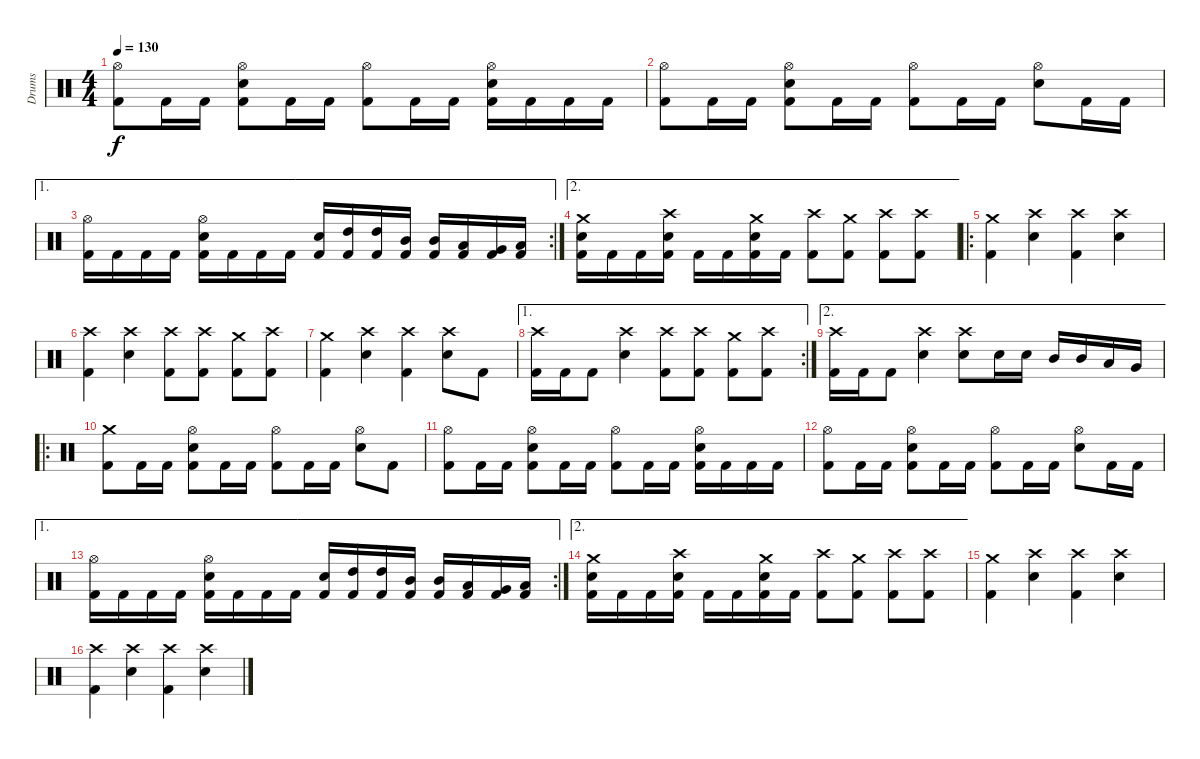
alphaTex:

\track ("Drums" "Drums") {instrument percussion}
\staff {score}
\articulation defaults
\ts (4 4)
\tempo 130
\clef neutral
\ks c
("Hi-Hat (open)" "Kick (hit) 2").8{dy f} "Kick (hit) 2".16 "Kick (hit) 2".16 ("Hi-Hat (open)" "Electric Snare (hit)" "Kick (hit) 2").8 "Kick (hit) 2".16 "Kick (hit) 2".16 ("Hi-Hat (open)" "Kick (hit) 2").8 "Kick (hit) 2".16 "Kick (hit) 2".16 ("Hi-Hat (open)" "Electric Snare (hit)" "Kick (hit) 2").16 "Kick (hit) 2".16 "Kick (hit) 2".16 "Kick (hit) 2".16 |
("Hi-Hat (open)" "Kick (hit) 2").8 "Kick (hit) 2".16 "Kick (hit) 2".16 ("Hi-Hat (open)" "Electric Snare (hit)" "Kick (hit) 2").8 "Kick (hit) 2".16 "Kick (hit) 2".16 ("Hi-Hat (open)" "Kick (hit) 2").8 "Kick (hit) 2".16 "Kick (hit) 2".16 ("Hi-Hat (open)" "Electric Snare (hit)").8 "Kick (hit) 2".16 "Kick (hit) 2".16 |
\ae 1
\rc 2
("Hi-Hat (open)" "Kick (hit) 2").16 "Kick (hit) 2".16 "Kick (hit) 2".16 "Kick (hit) 2".16 ("Hi-Hat (open)" "Electric Snare (hit)" "Kick (hit) 2").16 "Kick (hit) 2".16 "Kick (hit) 2".16 "Kick (hit) 2".16 ("Electric Snare (hit)" "Kick (hit) 2").16 ("High Tom (hit)" "Kick (hit) 2").16 ("High Tom (hit)" "Kick (hit) 2").16 ("Mid Tom (hit)" "Kick (hit) 2").16 ("Mid Tom (hit)" "Kick (hit) 2").16 ("Low Tom (hit)" "Kick (hit) 2").16 ("Very Low Tom (hit)" "Kick (hit) 2").16 ("Low Floor Tom (hit)" "Kick (hit) 2").16 |
\ae 2
("Crash medium (hit)" "Electric Snare (hit)" "Kick (hit) 2").16 "Kick (hit) 2".16 "Kick (hit) 2".16 ("Crash high (hit)" "Electric Snare (hit)" "Kick (hit) 2").16 "Kick (hit) 2".16 "Kick (hit) 2".16 ("Crash medium (hit)" "Electric Snare (hit)" "Kick (hit) 2").16 "Kick (hit) 2".16 ("Crash high (hit)" "Kick (hit) 2").8 ("Crash medium (hit)" "Kick (hit) 2").8 ("Crash high (hit)" "Kick (hit) 2").8 ("Crash high (hit)" "Kick (hit) 2").8 |
\ro
("Crash medium (hit)" "Kick (hit) 2").4 ("Crash high (hit)" "Electric Snare (hit)").4 ("Crash high (hit)" "Kick (hit) 2").4 ("Crash high (hit)" "Electric Snare (hit)").4 |
("Crash high (hit)" "Kick (hit) 2").4 ("Crash high (hit)" "Electric Snare (hit)").4 ("Crash high (hit)" "Kick (hit) 2").8 ("Crash high (hit)" "Kick (hit) 2").8 ("Crash medium (hit)" "Kick (hit) 2").8 ("Crash high (hit)" "Kick (hit) 2").8 |
("Crash medium (hit)" "Kick (hit) 2").4 ("Crash high (hit)" "Electric Snare (hit)").4 ("Crash high (hit)" "Kick (hit) 2").4 ("Crash high (hit)" "Electric Snare (hit)").8 "Kick (hit) 2".8 |
\ae 1
\rc 2
("Crash high (hit)" "Kick (hit) 2").16 "Kick (hit) 2".16 "Kick (hit) 2".8 ("Crash high (hit)" "Electric Snare (hit)").4 ("Crash high (hit)" "Kick (hit) 2").8 ("Crash high (hit)" "Kick (hit) 2").8 ("Crash medium (hit)" "Kick (hit) 2").8 ("Crash high (hit)" "Kick (hit) 2").8 |
\ae 2
("Crash high (hit)" "Kick (hit) 2").16 "Kick (hit) 2".16 "Kick (hit) 2".8 ("Crash high (hit)" "Electric Snare (hit)").4 ("Crash high (hit)" "Electric Snare (hit)").8 "Electric Snare (hit)".16 "Electric Snare (hit)".16 "Mid Tom (hit)".16 "Mid Tom (hit)".16 "Low Tom (hit)".16 "Very Low Tom (hit)".16 |
\ro
("Crash medium (hit)" "Kick (hit) 2").8 "Kick (hit) 2".16 "Kick (hit) 2".16 ("Hi-Hat (open)" "Electric Snare (hit)" "Kick (hit) 2").8 "Kick (hit) 2".16 "Kick (hit) 2".16 ("Hi-Hat (open)" "Kick (hit) 2").8 "Kick (hit) 2".16 "Kick (hit) 2".16 ("Hi-Hat (open)" "Electric Snare (hit)").8 "Kick (hit) 2".8 |
("Hi-Hat (open)" "Kick (hit) 2").8 "Kick (hit) 2".16 "Kick (hit) 2".16 ("Hi-Hat (open)" "Electric Snare (hit)" "Kick (hit) 2").8 "Kick (hit) 2".16 "Kick (hit) 2".16 ("Hi-Hat (open)" "Kick (hit) 2").8 "Kick (hit) 2".16 "Kick (hit) 2".16 ("Hi-Hat (open)" "Electric Snare (hit)" "Kick (hit) 2").16 "Kick (hit) 2".16 "Kick (hit) 2".16 "Kick (hit) 2".16 |
("Hi-Hat (open)" "Kick (hit) 2").8 "Kick (hit) 2".16 "Kick (hit) 2".16 ("Hi-Hat (open)" "Electric Snare (hit)" "Kick (hit) 2").8 "Kick (hit) 2".16 "Kick (hit) 2".16 ("Hi-Hat (open)" "Kick (hit) 2").8 "Kick (hit) 2".16 "Kick (hit) 2".16 ("Hi-Hat (open)" "Electric Snare (hit)").8 "Kick (hit) 2".16 "Kick (hit) 2".16 |
\ae 1
\rc 2
("Hi-Hat (open)" "Kick (hit) 2").16 "Kick (hit) 2".16 "Kick (hit) 2".16 "Kick (hit) 2".16 ("Hi-Hat (open)" "Electric Snare (hit)" "Kick (hit) 2").16 "Kick (hit) 2".16 "Kick (hit) 2".16 "Kick (hit) 2".16 ("Electric Snare (hit)" "Kick (hit) 2").16 ("High Tom (hit)" "Kick (hit) 2").16 ("High Tom (hit)" "Kick (hit) 2").16 ("Mid Tom (hit)" "Kick (hit) 2").16 ("Mid Tom (hit)" "Kick (hit) 2").16 ("Low Tom (hit)" "Kick (hit) 2").16 ("Very Low Tom (hit)" "Kick (hit) 2").16 ("Low Floor Tom (hit)" "Kick (hit) 2").16 |
\ae 2
("Crash medium (hit)" "Electric Snare (hit)" "Kick (hit) 2").16 "Kick (hit) 2".16 "Kick (hit) 2".16 ("Crash high (hit)" "Electric Snare (hit)" "Kick (hit) 2").16 "Kick (hit) 2".16 "Kick (hit) 2".16 ("Crash medium (hit)" "Electric Snare (hit)" "Kick (hit) 2").16 "Kick (hit) 2".16 ("Crash high (hit)" "Kick (hit) 2").8 ("Crash medium (hit)" "Kick (hit) 2").8 ("Crash high (hit)" "Kick (hit) 2").8 ("Crash high (hit)" "Kick (hit) 2").8 |
("Crash medium (hit)" "Kick (hit) 2").4 ("Crash high (hit)" "Electric Snare (hit)").4 ("Crash high (hit)" "Kick (hit) 2").4 ("Crash high (hit)" "Electric Snare (hit)").4 |
("Crash high (hit)" "Kick (hit) 2").4 ("Crash high (hit)" "Electric Snare (hit)").4 ("Crash high (hit)" "Kick (hit) 2").4 ("Crash high (hit)" "Electric Snare (hit)").4
